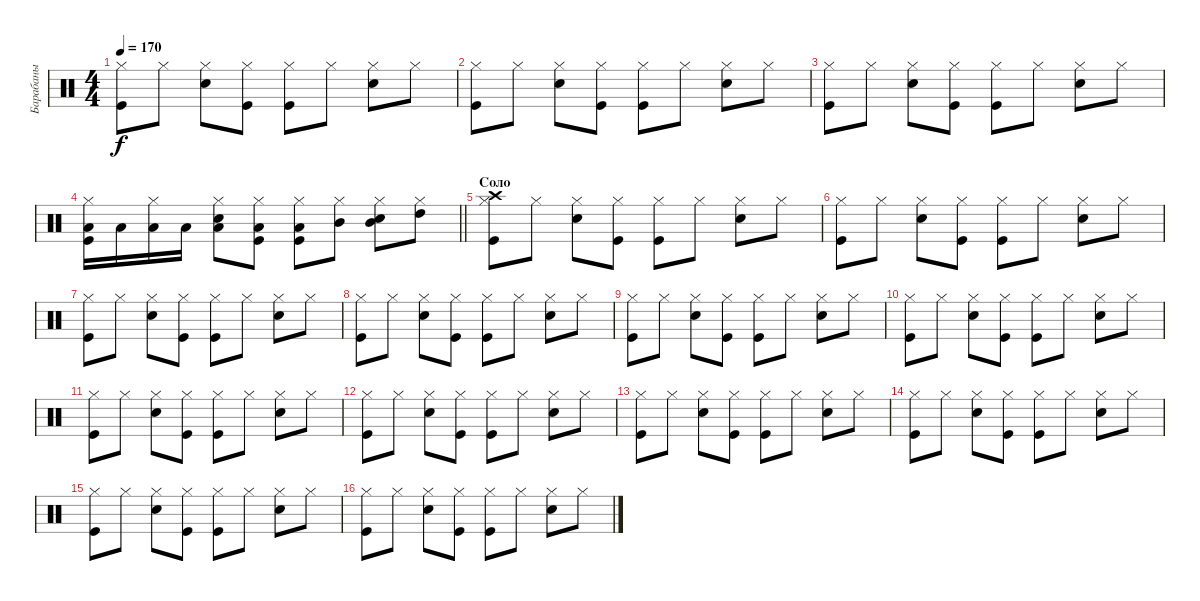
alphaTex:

\track ("Барабаны" "Барабаны") {instrument percussion}
\staff {score}
\articulation defaults
\ts (4 4)
\tempo 170
\clef neutral
\ks c
("Kick (hit)" "Hi-Hat (closed)").8{dy f} "Hi-Hat (closed)".8 ("Snare (hit) 2" "Hi-Hat (closed)").8 ("Kick (hit)" "Hi-Hat (closed)").8 ("Kick (hit)" "Hi-Hat (closed)").8 "Hi-Hat (closed)".8 ("Snare (hit) 2" "Hi-Hat (closed)").8 "Hi-Hat (closed)".8 |
("Kick (hit)" "Hi-Hat (closed)").8 "Hi-Hat (closed)".8 ("Snare (hit) 2" "Hi-Hat (closed)").8 ("Kick (hit)" "Hi-Hat (closed)").8 ("Kick (hit)" "Hi-Hat (closed)").8 "Hi-Hat (closed)".8 ("Snare (hit) 2" "Hi-Hat (closed)").8 "Hi-Hat (closed)".8 |
("Kick (hit)" "Hi-Hat (closed)").8 "Hi-Hat (closed)".8 ("Snare (hit) 2" "Hi-Hat (closed)").8 ("Kick (hit)" "Hi-Hat (closed)").8 ("Kick (hit)" "Hi-Hat (closed)").8 "Hi-Hat (closed)".8 ("Snare (hit) 2" "Hi-Hat (closed)").8 "Hi-Hat (closed)".8 |
\barLineRight lightlight
("Kick (hit)" "Hi-Hat (closed)" "Low Floor Tom (hit)").16 "Low Floor Tom (hit)".16 ("Hi-Hat (closed)" "Low Floor Tom (hit)").16 "Low Floor Tom (hit)".16 ("Snare (hit) 2" "Hi-Hat (closed)" "Low Floor Tom (hit)").8 ("Kick (hit)" "Hi-Hat (closed)" "Low Tom (hit)").8 ("Kick (hit)" "Hi-Hat (closed)" "Low Tom (hit)").8 ("Hi-Hat (closed)" "Mid Tom (hit)").8 ("Snare (hit) 2" "Hi-Hat (closed)" "Mid Tom (hit)").8 ("Hi-Hat (closed)" "High Tom (hit)").8 |
\section ("" "Соло")
("Kick (hit)" "Hi-Hat (closed)" "Crash high (hit)").8 "Hi-Hat (closed)".8 ("Snare (hit) 2" "Hi-Hat (closed)").8 ("Kick (hit)" "Hi-Hat (closed)").8 ("Kick (hit)" "Hi-Hat (closed)").8 "Hi-Hat (closed)".8 ("Snare (hit) 2" "Hi-Hat (closed)").8 "Hi-Hat (closed)".8 |
("Kick (hit)" "Hi-Hat (closed)").8 "Hi-Hat (closed)".8 ("Snare (hit) 2" "Hi-Hat (closed)").8 ("Kick (hit)" "Hi-Hat (closed)").8 ("Kick (hit)" "Hi-Hat (closed)").8 "Hi-Hat (closed)".8 ("Snare (hit) 2" "Hi-Hat (closed)").8 "Hi-Hat (closed)".8 |
("Kick (hit)" "Hi-Hat (closed)").8 "Hi-Hat (closed)".8 ("Snare (hit) 2" "Hi-Hat (closed)").8 ("Kick (hit)" "Hi-Hat (closed)").8 ("Kick (hit)" "Hi-Hat (closed)").8 "Hi-Hat (closed)".8 ("Snare (hit) 2" "Hi-Hat (closed)").8 "Hi-Hat (closed)".8 |
("Kick (hit)" "Hi-Hat (closed)").8 "Hi-Hat (closed)".8 ("Snare (hit) 2" "Hi-Hat (closed)").8 ("Kick (hit)" "Hi-Hat (closed)").8 ("Kick (hit)" "Hi-Hat (closed)").8 "Hi-Hat (closed)".8 ("Snare (hit) 2" "Hi-Hat (closed)").8 "Hi-Hat (closed)".8 |
("Kick (hit)" "Hi-Hat (closed)").8 "Hi-Hat (closed)".8 ("Snare (hit) 2" "Hi-Hat (closed)").8 ("Kick (hit)" "Hi-Hat (closed)").8 ("Kick (hit)" "Hi-Hat (closed)").8 "Hi-Hat (closed)".8 ("Snare (hit) 2" "Hi-Hat (closed)").8 "Hi-Hat (closed)".8 |
("Kick (hit)" "Hi-Hat (closed)").8 "Hi-Hat (closed)".8 ("Snare (hit) 2" "Hi-Hat (closed)").8 ("Kick (hit)" "Hi-Hat (closed)").8 ("Kick (hit)" "Hi-Hat (closed)").8 "Hi-Hat (closed)".8 ("Snare (hit) 2" "Hi-Hat (closed)").8 "Hi-Hat (closed)".8 |
("Kick (hit)" "Hi-Hat (closed)").8 "Hi-Hat (closed)".8 ("Snare (hit) 2" "Hi-Hat (closed)").8 ("Kick (hit)" "Hi-Hat (closed)").8 ("Kick (hit)" "Hi-Hat (closed)").8 "Hi-Hat (closed)".8 ("Snare (hit) 2" "Hi-Hat (closed)").8 "Hi-Hat (closed)".8 |
("Kick (hit)" "Hi-Hat (closed)").8 "Hi-Hat (closed)".8 ("Snare (hit) 2" "Hi-Hat (closed)").8 ("Kick (hit)" "Hi-Hat (closed)").8 ("Kick (hit)" "Hi-Hat (closed)").8 "Hi-Hat (closed)".8 ("Snare (hit) 2" "Hi-Hat (closed)").8 "Hi-Hat (closed)".8 |
("Kick (hit)" "Hi-Hat (closed)").8 "Hi-Hat (closed)".8 ("Snare (hit) 2" "Hi-Hat (closed)").8 ("Kick (hit)" "Hi-Hat (closed)").8 ("Kick (hit)" "Hi-Hat (closed)").8 "Hi-Hat (closed)".8 ("Snare (hit) 2" "Hi-Hat (closed)").8 "Hi-Hat (closed)".8 |
("Kick (hit)" "Hi-Hat (closed)").8 "Hi-Hat (closed)".8 ("Snare (hit) 2" "Hi-Hat (closed)").8 ("Kick (hit)" "Hi-Hat (closed)").8 ("Kick (hit)" "Hi-Hat (closed)").8 "Hi-Hat (closed)".8 ("Snare (hit) 2" "Hi-Hat (closed)").8 "Hi-Hat (closed)".8 |
("Kick (hit)" "Hi-Hat (closed)").8 "Hi-Hat (closed)".8 ("Snare (hit) 2" "Hi-Hat (closed)").8 ("Kick (hit)" "Hi-Hat (closed)").8 ("Kick (hit)" "Hi-Hat (closed)").8 "Hi-Hat (closed)".8 ("Snare (hit) 2" "Hi-Hat (closed)").8 "Hi-Hat (closed)".8 |
("Kick (hit)" "Hi-Hat (closed)").8 "Hi-Hat (closed)".8 ("Snare (hit) 2" "Hi-Hat (closed)").8 ("Kick (hit)" "Hi-Hat (closed)").8 ("Kick (hit)" "Hi-Hat (closed)").8 "Hi-Hat (closed)".8 ("Snare (hit) 2" "Hi-Hat (closed)").8 "Hi-Hat (closed)".8
